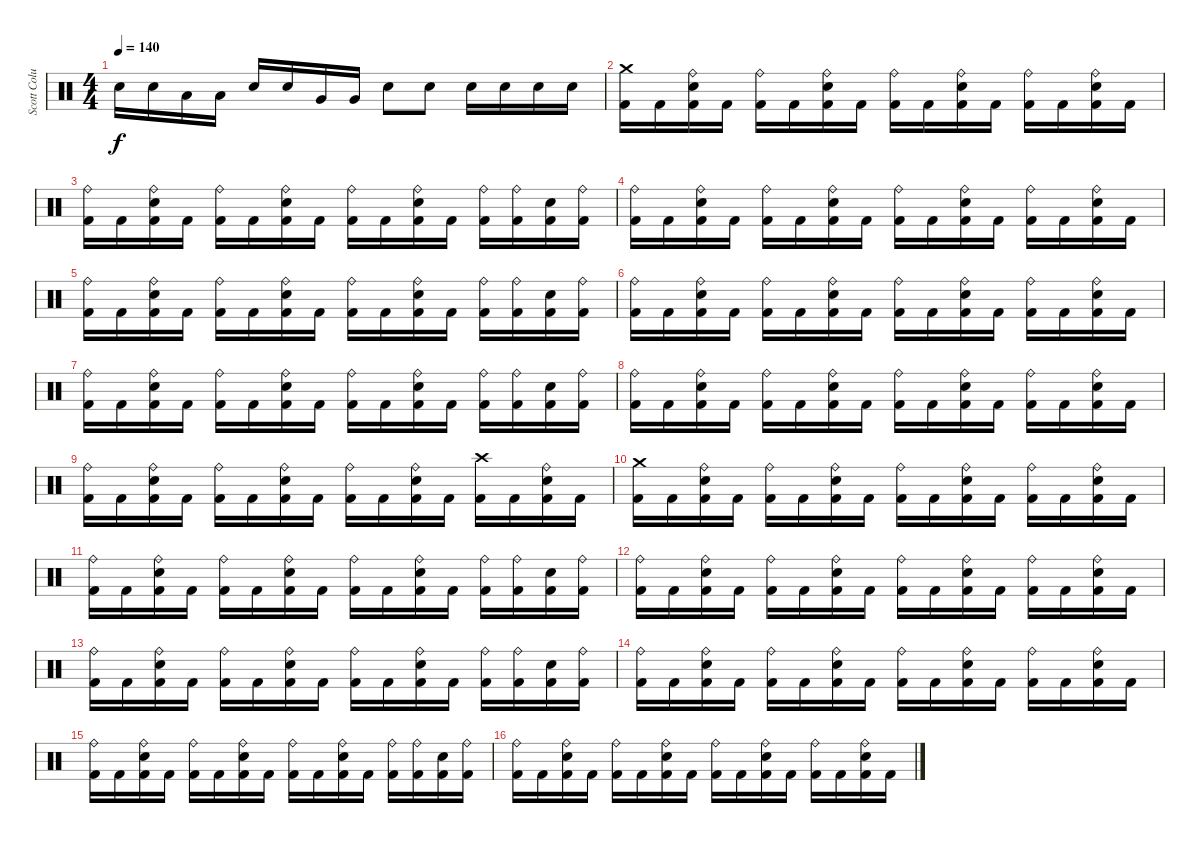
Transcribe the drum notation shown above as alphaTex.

\track ("Scott Columbus(Drums)" "Scott Colu") {instrument percussion}
\staff {score}
\articulation defaults
\ts (4 4)
\tempo 140
\clef neutral
\ks c "Snare (hit) 2".16{dy f} "Snare (hit) 2".16 "Low Tom (hit)".16 "Low Tom (hit)".16 "Snare (hit) 2".16 "Snare (hit) 2".16 "Very Low Tom (hit)".16 "Very Low Tom (hit)".16 "Snare (hit) 2".8 "Snare (hit) 2".8 "Snare (hit) 2".16 "Snare (hit) 2".16 "Snare (hit) 2".16 "Snare (hit) 2".16
|
("Crash medium (hit)" "Kick (hit) 2").16 "Kick (hit) 2".16 ("Ride (bell)" "Snare (hit) 2" "Kick (hit) 2").16 "Kick (hit) 2".16 ("Ride (bell)" "Kick (hit) 2").16 "Kick (hit) 2".16 ("Ride (bell)" "Snare (hit) 2" "Kick (hit) 2").16 "Kick (hit) 2".16 ("Ride (bell)" "Kick (hit) 2").16 "Kick (hit) 2".16 ("Ride (bell)" "Snare (hit) 2" "Kick (hit) 2").16 "Kick (hit) 2".16 ("Ride (bell)" "Kick (hit) 2").16 "Kick (hit) 2".16 ("Ride (bell)" "Snare (hit) 2" "Kick (hit) 2").16 "Kick (hit) 2".16 |
("Ride (bell)" "Kick (hit) 2").16 "Kick (hit) 2".16 ("Ride (bell)" "Snare (hit) 2" "Kick (hit) 2").16 "Kick (hit) 2".16 ("Ride (bell)" "Kick (hit) 2").16 "Kick (hit) 2".16 ("Ride (bell)" "Snare (hit) 2" "Kick (hit) 2").16 "Kick (hit) 2".16 ("Ride (bell)" "Kick (hit) 2").16 "Kick (hit) 2".16 ("Ride (bell)" "Snare (hit) 2" "Kick (hit) 2").16 "Kick (hit) 2".16 ("Ride (bell)" "Kick (hit) 2").16 ("Ride (bell)" "Kick (hit) 2").16 ("Snare (hit) 2" "Kick (hit) 2").16 ("Ride (bell)" "Kick (hit) 2").16 |
("Ride (bell)" "Kick (hit) 2").16 "Kick (hit) 2".16 ("Ride (bell)" "Snare (hit) 2" "Kick (hit) 2").16 "Kick (hit) 2".16 ("Ride (bell)" "Kick (hit) 2").16 "Kick (hit) 2".16 ("Ride (bell)" "Snare (hit) 2" "Kick (hit) 2").16 "Kick (hit) 2".16 ("Ride (bell)" "Kick (hit) 2").16 "Kick (hit) 2".16 ("Ride (bell)" "Snare (hit) 2" "Kick (hit) 2").16 "Kick (hit) 2".16 ("Ride (bell)" "Kick (hit) 2").16 "Kick (hit) 2".16 ("Ride (bell)" "Snare (hit) 2" "Kick (hit) 2").16 "Kick (hit) 2".16 |
("Ride (bell)" "Kick (hit) 2").16 "Kick (hit) 2".16 ("Ride (bell)" "Snare (hit) 2" "Kick (hit) 2").16 "Kick (hit) 2".16 ("Ride (bell)" "Kick (hit) 2").16 "Kick (hit) 2".16 ("Ride (bell)" "Snare (hit) 2" "Kick (hit) 2").16 "Kick (hit) 2".16 ("Ride (bell)" "Kick (hit) 2").16 "Kick (hit) 2".16 ("Ride (bell)" "Snare (hit) 2" "Kick (hit) 2").16 "Kick (hit) 2".16 ("Ride (bell)" "Kick (hit) 2").16 ("Ride (bell)" "Kick (hit) 2").16 ("Snare (hit) 2" "Kick (hit) 2").16 ("Ride (bell)" "Kick (hit) 2").16 |
("Ride (bell)" "Kick (hit) 2").16 "Kick (hit) 2".16 ("Ride (bell)" "Snare (hit) 2" "Kick (hit) 2").16 "Kick (hit) 2".16 ("Ride (bell)" "Kick (hit) 2").16 "Kick (hit) 2".16 ("Ride (bell)" "Snare (hit) 2" "Kick (hit) 2").16 "Kick (hit) 2".16 ("Ride (bell)" "Kick (hit) 2").16 "Kick (hit) 2".16 ("Ride (bell)" "Snare (hit) 2" "Kick (hit) 2").16 "Kick (hit) 2".16 ("Ride (bell)" "Kick (hit) 2").16 "Kick (hit) 2".16 ("Ride (bell)" "Snare (hit) 2" "Kick (hit) 2").16 "Kick (hit) 2".16 |
("Ride (bell)" "Kick (hit) 2").16 "Kick (hit) 2".16 ("Ride (bell)" "Snare (hit) 2" "Kick (hit) 2").16 "Kick (hit) 2".16 ("Ride (bell)" "Kick (hit) 2").16 "Kick (hit) 2".16 ("Ride (bell)" "Snare (hit) 2" "Kick (hit) 2").16 "Kick (hit) 2".16 ("Ride (bell)" "Kick (hit) 2").16 "Kick (hit) 2".16 ("Ride (bell)" "Snare (hit) 2" "Kick (hit) 2").16 "Kick (hit) 2".16 ("Ride (bell)" "Kick (hit) 2").16 ("Ride (bell)" "Kick (hit) 2").16 ("Snare (hit) 2" "Kick (hit) 2").16 ("Ride (bell)" "Kick (hit) 2").16 |
("Ride (bell)" "Kick (hit) 2").16 "Kick (hit) 2".16 ("Ride (bell)" "Snare (hit) 2" "Kick (hit) 2").16 "Kick (hit) 2".16 ("Ride (bell)" "Kick (hit) 2").16 "Kick (hit) 2".16 ("Ride (bell)" "Snare (hit) 2" "Kick (hit) 2").16 "Kick (hit) 2".16 ("Ride (bell)" "Kick (hit) 2").16 "Kick (hit) 2".16 ("Ride (bell)" "Snare (hit) 2" "Kick (hit) 2").16 "Kick (hit) 2".16 ("Ride (bell)" "Kick (hit) 2").16 "Kick (hit) 2".16 ("Ride (bell)" "Snare (hit) 2" "Kick (hit) 2").16 "Kick (hit) 2".16 |
("Ride (bell)" "Kick (hit) 2").16 "Kick (hit) 2".16 ("Ride (bell)" "Snare (hit) 2" "Kick (hit) 2").16 "Kick (hit) 2".16 ("Ride (bell)" "Kick (hit) 2").16 "Kick (hit) 2".16 ("Ride (bell)" "Snare (hit) 2" "Kick (hit) 2").16 "Kick (hit) 2".16 ("Ride (bell)" "Kick (hit) 2").16 "Kick (hit) 2".16 ("Ride (bell)" "Snare (hit) 2" "Kick (hit) 2").16 "Kick (hit) 2".16 ("Crash high (hit)" "Kick (hit) 2").16 "Kick (hit) 2".16 ("Ride (bell)" "Snare (hit) 2" "Kick (hit) 2").16 "Kick (hit) 2".16 |
("Crash medium (hit)" "Kick (hit) 2").16 "Kick (hit) 2".16 ("Ride (bell)" "Snare (hit) 2" "Kick (hit) 2").16 "Kick (hit) 2".16 ("Ride (bell)" "Kick (hit) 2").16 "Kick (hit) 2".16 ("Ride (bell)" "Snare (hit) 2" "Kick (hit) 2").16 "Kick (hit) 2".16 ("Ride (bell)" "Kick (hit) 2").16 "Kick (hit) 2".16 ("Ride (bell)" "Snare (hit) 2" "Kick (hit) 2").16 "Kick (hit) 2".16 ("Ride (bell)" "Kick (hit) 2").16 "Kick (hit) 2".16 ("Ride (bell)" "Snare (hit) 2" "Kick (hit) 2").16 "Kick (hit) 2".16 |
("Ride (bell)" "Kick (hit) 2").16 "Kick (hit) 2".16 ("Ride (bell)" "Snare (hit) 2" "Kick (hit) 2").16 "Kick (hit) 2".16 ("Ride (bell)" "Kick (hit) 2").16 "Kick (hit) 2".16 ("Ride (bell)" "Snare (hit) 2" "Kick (hit) 2").16 "Kick (hit) 2".16 ("Ride (bell)" "Kick (hit) 2").16 "Kick (hit) 2".16 ("Ride (bell)" "Snare (hit) 2" "Kick (hit) 2").16 "Kick (hit) 2".16 ("Ride (bell)" "Kick (hit) 2").16 ("Ride (bell)" "Kick (hit) 2").16 ("Snare (hit) 2" "Kick (hit) 2").16 ("Ride (bell)" "Kick (hit) 2").16 |
("Ride (bell)" "Kick (hit) 2").16 "Kick (hit) 2".16 ("Ride (bell)" "Snare (hit) 2" "Kick (hit) 2").16 "Kick (hit) 2".16 ("Ride (bell)" "Kick (hit) 2").16 "Kick (hit) 2".16 ("Ride (bell)" "Snare (hit) 2" "Kick (hit) 2").16 "Kick (hit) 2".16 ("Ride (bell)" "Kick (hit) 2").16 "Kick (hit) 2".16 ("Ride (bell)" "Snare (hit) 2" "Kick (hit) 2").16 "Kick (hit) 2".16 ("Ride (bell)" "Kick (hit) 2").16 "Kick (hit) 2".16 ("Ride (bell)" "Snare (hit) 2" "Kick (hit) 2").16 "Kick (hit) 2".16 |
("Ride (bell)" "Kick (hit) 2").16 "Kick (hit) 2".16 ("Ride (bell)" "Snare (hit) 2" "Kick (hit) 2").16 "Kick (hit) 2".16 ("Ride (bell)" "Kick (hit) 2").16 "Kick (hit) 2".16 ("Ride (bell)" "Snare (hit) 2" "Kick (hit) 2").16 "Kick (hit) 2".16 ("Ride (bell)" "Kick (hit) 2").16 "Kick (hit) 2".16 ("Ride (bell)" "Snare (hit) 2" "Kick (hit) 2").16 "Kick (hit) 2".16 ("Ride (bell)" "Kick (hit) 2").16 ("Ride (bell)" "Kick (hit) 2").16 ("Snare (hit) 2" "Kick (hit) 2").16 ("Ride (bell)" "Kick (hit) 2").16 |
("Ride (bell)" "Kick (hit) 2").16 "Kick (hit) 2".16 ("Ride (bell)" "Snare (hit) 2" "Kick (hit) 2").16 "Kick (hit) 2".16 ("Ride (bell)" "Kick (hit) 2").16 "Kick (hit) 2".16 ("Ride (bell)" "Snare (hit) 2" "Kick (hit) 2").16 "Kick (hit) 2".16 ("Ride (bell)" "Kick (hit) 2").16 "Kick (hit) 2".16 ("Ride (bell)" "Snare (hit) 2" "Kick (hit) 2").16 "Kick (hit) 2".16 ("Ride (bell)" "Kick (hit) 2").16 "Kick (hit) 2".16 ("Ride (bell)" "Snare (hit) 2" "Kick (hit) 2").16 "Kick (hit) 2".16 |
("Ride (bell)" "Kick (hit) 2").16 "Kick (hit) 2".16 ("Ride (bell)" "Snare (hit) 2" "Kick (hit) 2").16 "Kick (hit) 2".16 ("Ride (bell)" "Kick (hit) 2").16 "Kick (hit) 2".16 ("Ride (bell)" "Snare (hit) 2" "Kick (hit) 2").16 "Kick (hit) 2".16 ("Ride (bell)" "Kick (hit) 2").16 "Kick (hit) 2".16 ("Ride (bell)" "Snare (hit) 2" "Kick (hit) 2").16 "Kick (hit) 2".16 ("Ride (bell)" "Kick (hit) 2").16 ("Ride (bell)" "Kick (hit) 2").16 ("Snare (hit) 2" "Kick (hit) 2").16 ("Ride (bell)" "Kick (hit) 2").16 |
("Ride (bell)" "Kick (hit) 2").16 "Kick (hit) 2".16 ("Ride (bell)" "Snare (hit) 2" "Kick (hit) 2").16 "Kick (hit) 2".16 ("Ride (bell)" "Kick (hit) 2").16 "Kick (hit) 2".16 ("Ride (bell)" "Snare (hit) 2" "Kick (hit) 2").16 "Kick (hit) 2".16 ("Ride (bell)" "Kick (hit) 2").16 "Kick (hit) 2".16 ("Ride (bell)" "Snare (hit) 2" "Kick (hit) 2").16 "Kick (hit) 2".16 ("Ride (bell)" "Kick (hit) 2").16 "Kick (hit) 2".16 ("Ride (bell)" "Snare (hit) 2" "Kick (hit) 2").16 "Kick (hit) 2".16
